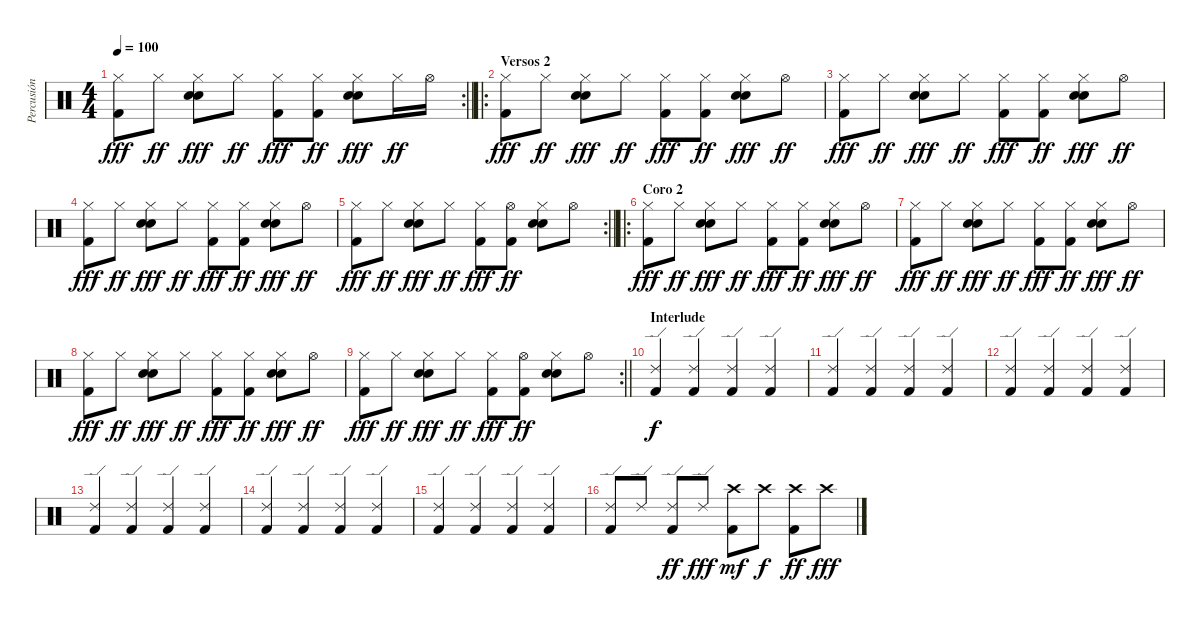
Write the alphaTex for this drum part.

\track ("Percusión" "Percusión") {instrument percussion}
\staff {score}
\articulation defaults
\rc 2
\ts (4 4)
\tempo 100
\clef neutral
\barLineRight lightlight
\ks c
("Hi-Hat (closed)" "Kick (hit) 2").8{dy fff} "Hi-Hat (closed)".8{dy ff} ("Hi-Hat (closed)" "Electric Snare (hit)" "Electric Snare (hit)").8{dy fff} "Hi-Hat (closed)".8{dy ff} ("Hi-Hat (closed)" "Kick (hit) 2").8{dy fff} ("Hi-Hat (closed)" "Kick (hit) 2").8{dy ff} ("Hi-Hat (closed)" "Electric Snare (hit)" "Electric Snare (hit)").8{dy fff} "Hi-Hat (closed)".16{dy ff} "Hi-Hat (open)".16 |
\ro
\section ("" "Versos 2")
("Hi-Hat (closed)" "Kick (hit) 2").8{dy fff} "Hi-Hat (closed)".8{dy ff} ("Hi-Hat (closed)" "Electric Snare (hit)" "Electric Snare (hit)").8{dy fff} "Hi-Hat (closed)".8{dy ff} ("Hi-Hat (closed)" "Kick (hit) 2").8{dy fff} ("Hi-Hat (closed)" "Kick (hit) 2").8{dy ff} ("Hi-Hat (closed)" "Electric Snare (hit)" "Electric Snare (hit)").8{dy fff} "Hi-Hat (open)".8{dy ff} |
("Hi-Hat (closed)" "Kick (hit) 2").8{dy fff} "Hi-Hat (closed)".8{dy ff} ("Hi-Hat (closed)" "Electric Snare (hit)" "Electric Snare (hit)").8{dy fff} "Hi-Hat (closed)".8{dy ff} ("Hi-Hat (closed)" "Kick (hit) 2").8{dy fff} ("Hi-Hat (closed)" "Kick (hit) 2").8{dy ff} ("Hi-Hat (closed)" "Electric Snare (hit)" "Electric Snare (hit)").8{dy fff} "Hi-Hat (open)".8{dy ff} |
("Hi-Hat (closed)" "Kick (hit) 2").8{dy fff} "Hi-Hat (closed)".8{dy ff} ("Hi-Hat (closed)" "Electric Snare (hit)" "Electric Snare (hit)").8{dy fff} "Hi-Hat (closed)".8{dy ff} ("Hi-Hat (closed)" "Kick (hit) 2").8{dy fff} ("Hi-Hat (closed)" "Kick (hit) 2").8{dy ff} ("Hi-Hat (closed)" "Electric Snare (hit)" "Electric Snare (hit)").8{dy fff} "Hi-Hat (open)".8{dy ff} |
\rc 2
\barLineRight lightlight
("Hi-Hat (closed)" "Kick (hit) 2").8{dy fff} "Hi-Hat (closed)".8{dy ff} ("Hi-Hat (closed)" "Electric Snare (hit)" "Electric Snare (hit)").8{dy fff} "Hi-Hat (closed)".8{dy ff} ("Hi-Hat (closed)" "Kick (hit) 2").8{dy fff} ("Hi-Hat (open)" "Kick (hit) 2").8{dy ff} ("Hi-Hat (closed)" "Electric Snare (hit)" "Electric Snare (hit)").8 "Hi-Hat (open)".8 |
\ro
\section ("" "Coro 2")
("Hi-Hat (closed)" "Kick (hit) 2").8{dy fff} "Hi-Hat (closed)".8{dy ff} ("Hi-Hat (closed)" "Electric Snare (hit)" "Electric Snare (hit)").8{dy fff} "Hi-Hat (closed)".8{dy ff} ("Hi-Hat (closed)" "Kick (hit) 2").8{dy fff} ("Hi-Hat (closed)" "Kick (hit) 2").8{dy ff} ("Hi-Hat (closed)" "Electric Snare (hit)" "Electric Snare (hit)").8{dy fff} "Hi-Hat (open)".8{dy ff} |
("Hi-Hat (closed)" "Kick (hit) 2").8{dy fff} "Hi-Hat (closed)".8{dy ff} ("Hi-Hat (closed)" "Electric Snare (hit)" "Electric Snare (hit)").8{dy fff} "Hi-Hat (closed)".8{dy ff} ("Hi-Hat (closed)" "Kick (hit) 2").8{dy fff} ("Hi-Hat (closed)" "Kick (hit) 2").8{dy ff} ("Hi-Hat (closed)" "Electric Snare (hit)" "Electric Snare (hit)").8{dy fff} "Hi-Hat (open)".8{dy ff} |
("Hi-Hat (closed)" "Kick (hit) 2").8{dy fff} "Hi-Hat (closed)".8{dy ff} ("Hi-Hat (closed)" "Electric Snare (hit)" "Electric Snare (hit)").8{dy fff} "Hi-Hat (closed)".8{dy ff} ("Hi-Hat (closed)" "Kick (hit) 2").8{dy fff} ("Hi-Hat (closed)" "Kick (hit) 2").8{dy ff} ("Hi-Hat (closed)" "Electric Snare (hit)" "Electric Snare (hit)").8{dy fff} "Hi-Hat (open)".8{dy ff} |
\rc 2
\barLineRight lightlight
("Hi-Hat (closed)" "Kick (hit) 2").8{dy fff} "Hi-Hat (closed)".8{dy ff} ("Hi-Hat (closed)" "Electric Snare (hit)" "Electric Snare (hit)").8{dy fff} "Hi-Hat (closed)".8{dy ff} ("Hi-Hat (closed)" "Kick (hit) 2").8{dy fff} ("Hi-Hat (open)" "Kick (hit) 2").8{dy ff} ("Hi-Hat (closed)" "Electric Snare (hit)" "Electric Snare (hit)").8 "Hi-Hat (open)".8 |
\section ("" "Interlude")
("Kick (hit) 2" "Ride (edge) 2").4{dy f} ("Kick (hit) 2" "Ride (edge) 2").4 ("Kick (hit) 2" "Ride (edge) 2").4 ("Kick (hit) 2" "Ride (edge) 2").4 |
("Kick (hit) 2" "Ride (edge) 2").4 ("Kick (hit) 2" "Ride (edge) 2").4 ("Kick (hit) 2" "Ride (edge) 2").4 ("Kick (hit) 2" "Ride (edge) 2").4 |
("Kick (hit) 2" "Ride (edge) 2").4 ("Kick (hit) 2" "Ride (edge) 2").4 ("Kick (hit) 2" "Ride (edge) 2").4 ("Kick (hit) 2" "Ride (edge) 2").4 |
("Kick (hit) 2" "Ride (edge) 2").4 ("Kick (hit) 2" "Ride (edge) 2").4 ("Kick (hit) 2" "Ride (edge) 2").4 ("Kick (hit) 2" "Ride (edge) 2").4 |
("Kick (hit) 2" "Ride (edge) 2").4 ("Kick (hit) 2" "Ride (edge) 2").4 ("Kick (hit) 2" "Ride (edge) 2").4 ("Kick (hit) 2" "Ride (edge) 2").4 |
("Kick (hit) 2" "Ride (edge) 2").4 ("Kick (hit) 2" "Ride (edge) 2").4 ("Kick (hit) 2" "Ride (edge) 2").4 ("Kick (hit) 2" "Ride (edge) 2").4 |
("Kick (hit) 2" "Ride (edge) 2").8 "Ride (edge) 2".8 ("Kick (hit) 2" "Ride (edge) 2").8{dy ff} "Ride (edge) 2".8{dy fff} ("Kick (hit) 2" "Crash high (hit)").8{dy mf} "Crash high (hit)".8{dy f} ("Kick (hit) 2" "Crash high (hit)").8{dy ff} "Crash high (hit)".8{dy fff}
